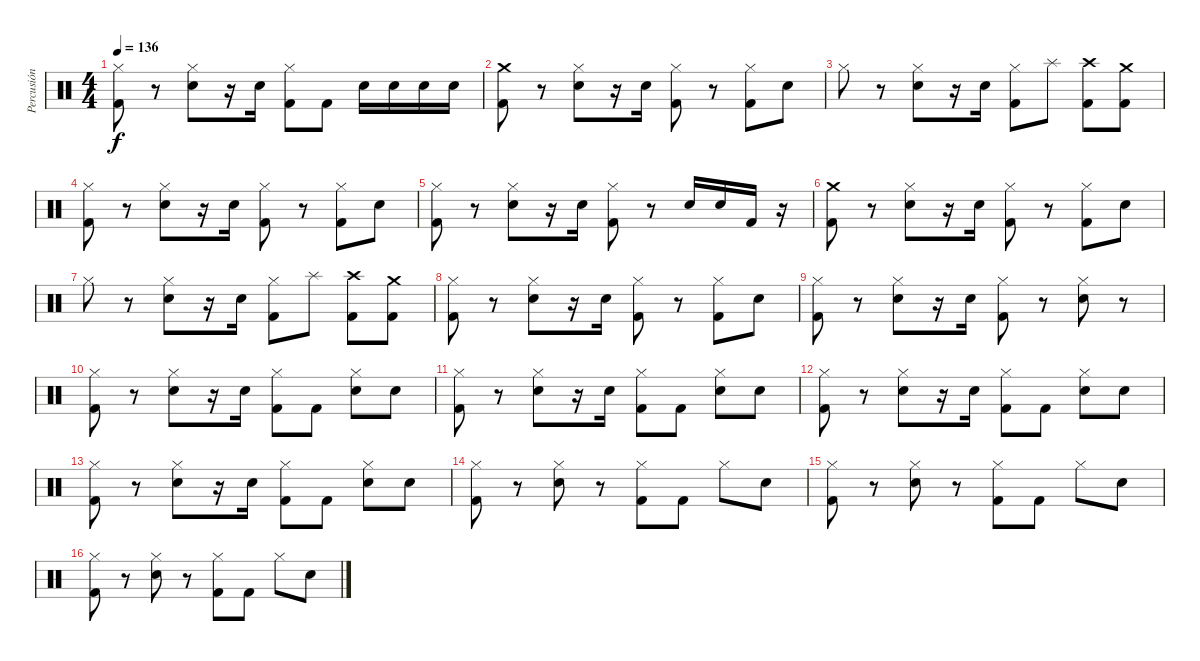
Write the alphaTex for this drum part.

\track ("Percusión" "Percusión") {instrument percussion}
\staff {score}
\articulation defaults
\ts (4 4)
\tempo 136
\clef neutral
\ks c
("Hi-Hat (closed)" "Kick (hit) 2").8{dy f} r.8 ("Hi-Hat (closed)" "Electric Snare (hit)").8 r.16 "Electric Snare (hit)".16 ("Hi-Hat (closed)" "Kick (hit) 2").8 "Kick (hit) 2".8 "Electric Snare (hit)".16 "Electric Snare (hit)".16 "Electric Snare (hit)".16 "Electric Snare (hit)".16 |
("Crash medium (hit)" "Kick (hit) 2").8 r.8 ("Hi-Hat (closed)" "Electric Snare (hit)").8 r.16 "Electric Snare (hit)".16 ("Hi-Hat (closed)" "Kick (hit) 2").8 r.8 ("Hi-Hat (closed)" "Kick (hit) 2").8 "Electric Snare (hit)".8 |
"Hi-Hat (closed)".8 r.8 ("Hi-Hat (closed)" "Electric Snare (hit)").8 r.16 "Electric Snare (hit)".16 ("Hi-Hat (closed)" "Kick (hit) 2").8 "Splash (hit)".8 ("Crash high (hit)" "Kick (hit) 2").8 ("Crash medium (hit)" "Kick (hit) 2").8 |
("Hi-Hat (closed)" "Kick (hit) 2").8 r.8 ("Hi-Hat (closed)" "Electric Snare (hit)").8 r.16 "Electric Snare (hit)".16 ("Hi-Hat (closed)" "Kick (hit) 2").8 r.8 ("Hi-Hat (closed)" "Kick (hit) 2").8 "Electric Snare (hit)".8 |
("Hi-Hat (closed)" "Kick (hit) 2").8 r.8 ("Hi-Hat (closed)" "Electric Snare (hit)").8 r.16 "Electric Snare (hit)".16 ("Hi-Hat (closed)" "Kick (hit) 2").8 r.8 "Electric Snare (hit)".16 "Electric Snare (hit)".16 "Kick (hit) 2".16 r.16 |
("Crash medium (hit)" "Kick (hit) 2").8 r.8 ("Hi-Hat (closed)" "Electric Snare (hit)").8 r.16 "Electric Snare (hit)".16 ("Hi-Hat (closed)" "Kick (hit) 2").8 r.8 ("Hi-Hat (closed)" "Kick (hit) 2").8 "Electric Snare (hit)".8 |
"Hi-Hat (closed)".8 r.8 ("Hi-Hat (closed)" "Electric Snare (hit)").8 r.16 "Electric Snare (hit)".16 ("Hi-Hat (closed)" "Kick (hit) 2").8 "Splash (hit)".8 ("Crash high (hit)" "Kick (hit) 2").8 ("Crash medium (hit)" "Kick (hit) 2").8 |
("Hi-Hat (closed)" "Kick (hit) 2").8 r.8 ("Hi-Hat (closed)" "Electric Snare (hit)").8 r.16 "Electric Snare (hit)".16 ("Hi-Hat (closed)" "Kick (hit) 2").8 r.8 ("Hi-Hat (closed)" "Kick (hit) 2").8 "Electric Snare (hit)".8 |
("Hi-Hat (closed)" "Kick (hit) 2").8 r.8 ("Hi-Hat (closed)" "Electric Snare (hit)").8 r.16 "Electric Snare (hit)".16 ("Hi-Hat (closed)" "Kick (hit) 2").8 r.8 ("Hi-Hat (closed)" "Electric Snare (hit)").8 r.8 |
("Hi-Hat (closed)" "Kick (hit) 2").8 r.8 ("Hi-Hat (closed)" "Electric Snare (hit)").8 r.16 "Electric Snare (hit)".16 ("Hi-Hat (closed)" "Kick (hit) 2").8 "Kick (hit) 2".8 ("Hi-Hat (closed)" "Electric Snare (hit)").8 "Electric Snare (hit)".8 |
("Hi-Hat (closed)" "Kick (hit) 2").8 r.8 ("Hi-Hat (closed)" "Electric Snare (hit)").8 r.16 "Electric Snare (hit)".16 ("Hi-Hat (closed)" "Kick (hit) 2").8 "Kick (hit) 2".8 ("Hi-Hat (closed)" "Electric Snare (hit)").8 "Electric Snare (hit)".8 |
("Hi-Hat (closed)" "Kick (hit) 2").8 r.8 ("Hi-Hat (closed)" "Electric Snare (hit)").8 r.16 "Electric Snare (hit)".16 ("Hi-Hat (closed)" "Kick (hit) 2").8 "Kick (hit) 2".8 ("Hi-Hat (closed)" "Electric Snare (hit)").8 "Electric Snare (hit)".8 |
("Hi-Hat (closed)" "Kick (hit) 2").8 r.8 ("Hi-Hat (closed)" "Electric Snare (hit)").8 r.16 "Electric Snare (hit)".16 ("Hi-Hat (closed)" "Kick (hit) 2").8 "Kick (hit) 2".8 ("Hi-Hat (closed)" "Electric Snare (hit)").8 "Electric Snare (hit)".8 |
("Hi-Hat (closed)" "Kick (hit) 2").8 r.8 ("Hi-Hat (closed)" "Electric Snare (hit)").8 r.8 ("Hi-Hat (closed)" "Kick (hit) 2").8 "Kick (hit) 2".8 "Hi-Hat (closed)".8 "Electric Snare (hit)".8 |
("Hi-Hat (closed)" "Kick (hit) 2").8 r.8 ("Hi-Hat (closed)" "Electric Snare (hit)").8 r.8 ("Hi-Hat (closed)" "Kick (hit) 2").8 "Kick (hit) 2".8 "Hi-Hat (closed)".8 "Electric Snare (hit)".8 |
("Hi-Hat (closed)" "Kick (hit) 2").8 r.8 ("Hi-Hat (closed)" "Electric Snare (hit)").8 r.8 ("Hi-Hat (closed)" "Kick (hit) 2").8 "Kick (hit) 2".8 "Hi-Hat (closed)".8 "Electric Snare (hit)".8
